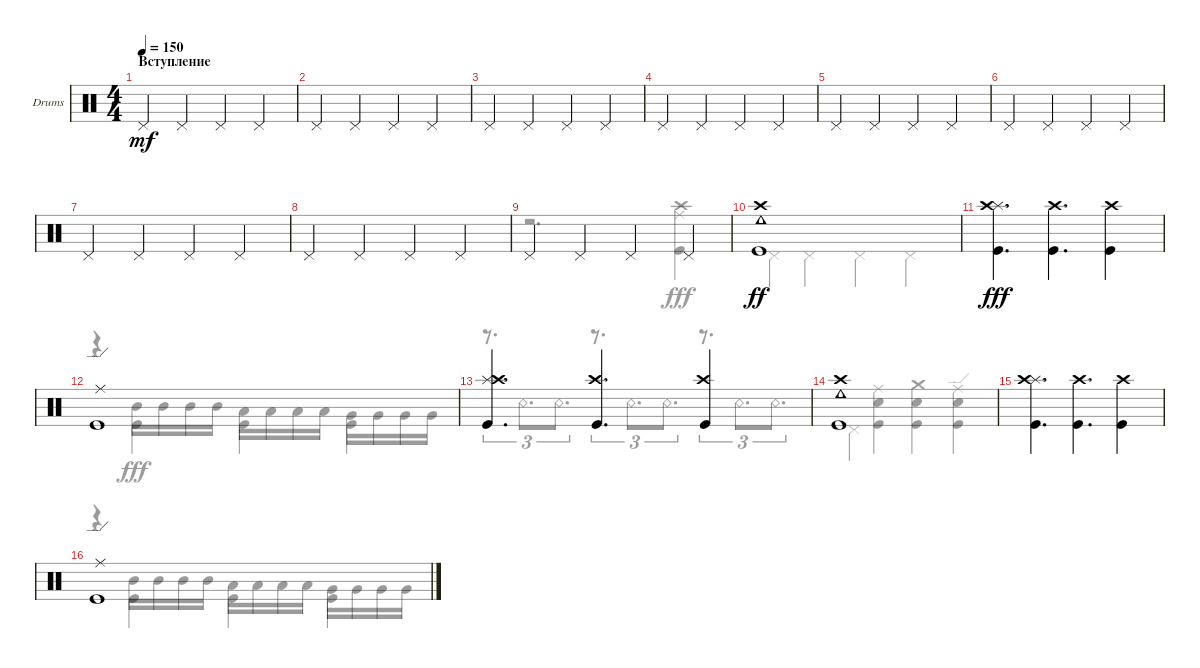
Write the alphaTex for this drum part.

\defaultSystemsLayout 4
\bracketExtendMode groupsimilarinstruments
\firstSystemTrackNameOrientation horizontal
\otherSystemsTrackNameOrientation horizontal
\track ("Drumkit" "Drums") {instrument percussion}
\staff {score}
\articulation defaults
\voice
\ts (4 4)
\section ("" "Вступление")
\tempo 150
\clef neutral
\ks c "Pedal Hi-Hat (hit)".4{dy mf} "Pedal Hi-Hat (hit)".4 "Pedal Hi-Hat (hit)".4 "Pedal Hi-Hat (hit)".4
|
"Pedal Hi-Hat (hit)".4 "Pedal Hi-Hat (hit)".4 "Pedal Hi-Hat (hit)".4 "Pedal Hi-Hat (hit)".4 |
"Pedal Hi-Hat (hit)".4 "Pedal Hi-Hat (hit)".4 "Pedal Hi-Hat (hit)".4 "Pedal Hi-Hat (hit)".4 |
"Pedal Hi-Hat (hit)".4 "Pedal Hi-Hat (hit)".4 "Pedal Hi-Hat (hit)".4 "Pedal Hi-Hat (hit)".4 |
"Pedal Hi-Hat (hit)".4 "Pedal Hi-Hat (hit)".4 "Pedal Hi-Hat (hit)".4 "Pedal Hi-Hat (hit)".4 |
"Pedal Hi-Hat (hit)".4 "Pedal Hi-Hat (hit)".4 "Pedal Hi-Hat (hit)".4 "Pedal Hi-Hat (hit)".4 |
"Pedal Hi-Hat (hit)".4 "Pedal Hi-Hat (hit)".4 "Pedal Hi-Hat (hit)".4 "Pedal Hi-Hat (hit)".4 |
"Pedal Hi-Hat (hit)".4 "Pedal Hi-Hat (hit)".4 "Pedal Hi-Hat (hit)".4 "Pedal Hi-Hat (hit)".4 |
"Pedal Hi-Hat (hit)".4 "Pedal Hi-Hat (hit)".4 "Pedal Hi-Hat (hit)".4 "Pedal Hi-Hat (hit)".4 |
("Cowbell low (hit)" "Kick (hit)" "Crash high (hit)").1{dy ff} |
("Kick (hit)" "Splash (hit)" "Crash high (hit)").4{d dy fff} ("Crash high (hit)" "Kick (hit)").4{d} ("Kick (hit)" "Crash high (hit)").4 |
("Ride (edge)" "Kick (hit)").1 |
("Kick (hit)" "Splash (hit)" "Crash high (hit)").4{d} ("Crash high (hit)" "Kick (hit)").4{d} ("Kick (hit)" "Crash high (hit)").4 |
("Cowbell low (hit)" "Kick (hit)" "Crash high (hit)").1 |
("Kick (hit)" "Splash (hit)" "Crash high (hit)").4{d} ("Crash high (hit)" "Kick (hit)").4{d} ("Kick (hit)" "Crash high (hit)").4 |
("Ride (edge)" "Kick (hit)").1
\voice
\clef neutral
\ottava regular
\simile none
\ks c
|
|
|
|
|
|
|
|
r.2{d} ("Ride (middle)" "Crash high (hit)" "Kick (hit)").4 |
"Pedal Hi-Hat (hit)".4{dy fff} "Pedal Hi-Hat (hit)".4 "Pedal Hi-Hat (hit)".4 "Pedal Hi-Hat (hit)".4 |
|
r.4 "Mid Tom (hit)".16 "Mid Tom (hit)".16 "Mid Tom (hit)".16 "Mid Tom (hit)".16 "Low Tom (hit)".16 "Low Tom (hit)".16 "Low Tom (hit)".16 "Low Tom (hit)".16 "Very Low Tom (hit)".16 "Very Low Tom (hit)".16 "Very Low Tom (hit)".16 "Very Low Tom (hit)".16 |
r.8{d tu (3 2)} "Snare (rim shot)".8{d tu (3 2)} "Snare (rim shot)".8{d tu (3 2)} r.8{d tu (3 2)} "Snare (rim shot)".8{d tu (3 2)} "Snare (rim shot)".8{d tu (3 2)} r.8{d tu (3 2)} "Snare (rim shot)".8{d tu (3 2)} "Snare (rim shot)".8{d tu (3 2)} |
"Pedal Hi-Hat (hit)".4 ("Kick (hit)" "Ride (middle)" "Snare (hit) 2").4 ("Kick (hit)" "Snare (hit) 2" "Crash medium (hit)").4 ("Kick (hit)" "Snare (hit) 2" "Ride (edge)").4 |
|
r.4 "Mid Tom (hit)".16 "Mid Tom (hit)".16 "Mid Tom (hit)".16 "Mid Tom (hit)".16 "Low Tom (hit)".16 "Low Tom (hit)".16 "Low Tom (hit)".16 "Low Tom (hit)".16 "Very Low Tom (hit)".16 "Very Low Tom (hit)".16 "Very Low Tom (hit)".16 "Very Low Tom (hit)".16
\voice
\clef neutral
\ottava regular
\simile none
\ks c
|
|
|
|
|
|
|
|
|
|
|
r.4 "Kick (hit)".4 "Kick (hit)".4 "Kick (hit)".4 |
|
|
|
r.4 "Kick (hit)".4 "Kick (hit)".4 "Kick (hit)".4
